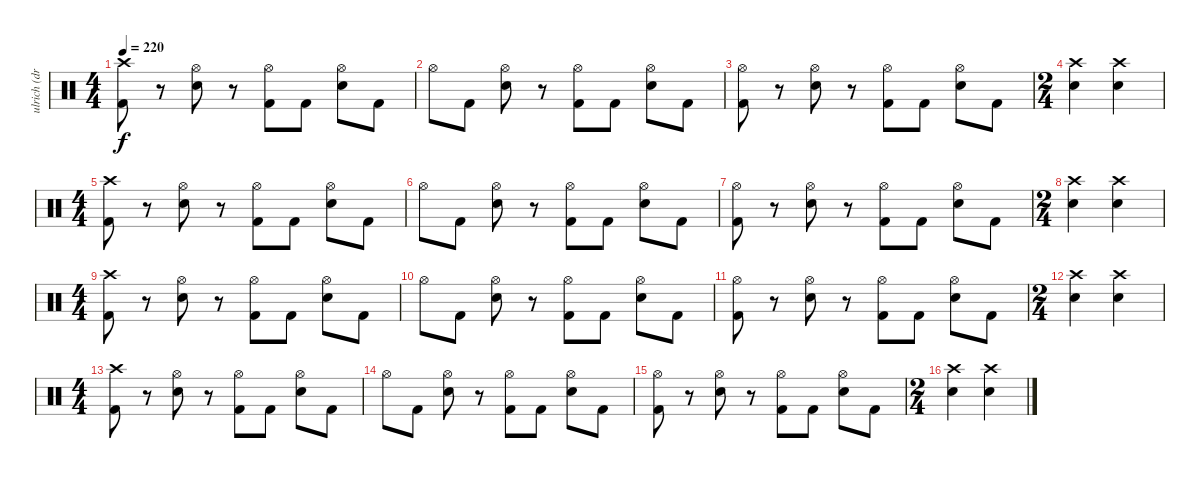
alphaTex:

\track ("ulrich (drums)" "ulrich (dr") {instrument percussion}
\staff {score}
\articulation defaults
\ts (4 4)
\tempo 220
\clef neutral
\ks c
("Crash high (hit)" "Kick (hit) 2").8{dy f} r.8 ("Hi-Hat (open)" "Snare (hit) 2").8 r.8 ("Hi-Hat (open)" "Kick (hit) 2").8 "Kick (hit) 2".8 ("Hi-Hat (open)" "Snare (hit) 2").8 "Kick (hit) 2".8 |
"Hi-Hat (open)".8 "Kick (hit) 2".8 ("Hi-Hat (open)" "Snare (hit) 2").8 r.8 ("Hi-Hat (open)" "Kick (hit) 2").8 "Kick (hit) 2".8 ("Hi-Hat (open)" "Snare (hit) 2").8 "Kick (hit) 2".8 |
("Hi-Hat (open)" "Kick (hit) 2").8 r.8 ("Hi-Hat (open)" "Snare (hit) 2").8 r.8 ("Hi-Hat (open)" "Kick (hit) 2").8 "Kick (hit) 2".8 ("Hi-Hat (open)" "Snare (hit) 2").8 "Kick (hit) 2".8 |
\ts (2 4)
("Crash high (hit)" "Snare (hit) 2").4 ("Crash high (hit)" "Snare (hit) 2").4 |
\ts (4 4)
("Crash high (hit)" "Kick (hit) 2").8 r.8 ("Hi-Hat (open)" "Snare (hit) 2").8 r.8 ("Hi-Hat (open)" "Kick (hit) 2").8 "Kick (hit) 2".8 ("Hi-Hat (open)" "Snare (hit) 2").8 "Kick (hit) 2".8 |
"Hi-Hat (open)".8 "Kick (hit) 2".8 ("Hi-Hat (open)" "Snare (hit) 2").8 r.8 ("Hi-Hat (open)" "Kick (hit) 2").8 "Kick (hit) 2".8 ("Hi-Hat (open)" "Snare (hit) 2").8 "Kick (hit) 2".8 |
("Hi-Hat (open)" "Kick (hit) 2").8 r.8 ("Hi-Hat (open)" "Snare (hit) 2").8 r.8 ("Hi-Hat (open)" "Kick (hit) 2").8 "Kick (hit) 2".8 ("Hi-Hat (open)" "Snare (hit) 2").8 "Kick (hit) 2".8 |
\ts (2 4)
("Crash high (hit)" "Snare (hit) 2").4 ("Crash high (hit)" "Snare (hit) 2").4 |
\ts (4 4)
("Crash high (hit)" "Kick (hit) 2").8 r.8 ("Hi-Hat (open)" "Snare (hit) 2").8 r.8 ("Hi-Hat (open)" "Kick (hit) 2").8 "Kick (hit) 2".8 ("Hi-Hat (open)" "Snare (hit) 2").8 "Kick (hit) 2".8 |
"Hi-Hat (open)".8 "Kick (hit) 2".8 ("Hi-Hat (open)" "Snare (hit) 2").8 r.8 ("Hi-Hat (open)" "Kick (hit) 2").8 "Kick (hit) 2".8 ("Hi-Hat (open)" "Snare (hit) 2").8 "Kick (hit) 2".8 |
("Hi-Hat (open)" "Kick (hit) 2").8 r.8 ("Hi-Hat (open)" "Snare (hit) 2").8 r.8 ("Hi-Hat (open)" "Kick (hit) 2").8 "Kick (hit) 2".8 ("Hi-Hat (open)" "Snare (hit) 2").8 "Kick (hit) 2".8 |
\ts (2 4)
("Crash high (hit)" "Snare (hit) 2").4 ("Crash high (hit)" "Snare (hit) 2").4 |
\ts (4 4)
("Crash high (hit)" "Kick (hit) 2").8 r.8 ("Hi-Hat (open)" "Snare (hit) 2").8 r.8 ("Hi-Hat (open)" "Kick (hit) 2").8 "Kick (hit) 2".8 ("Hi-Hat (open)" "Snare (hit) 2").8 "Kick (hit) 2".8 |
"Hi-Hat (open)".8 "Kick (hit) 2".8 ("Hi-Hat (open)" "Snare (hit) 2").8 r.8 ("Hi-Hat (open)" "Kick (hit) 2").8 "Kick (hit) 2".8 ("Hi-Hat (open)" "Snare (hit) 2").8 "Kick (hit) 2".8 |
("Hi-Hat (open)" "Kick (hit) 2").8 r.8 ("Hi-Hat (open)" "Snare (hit) 2").8 r.8 ("Hi-Hat (open)" "Kick (hit) 2").8 "Kick (hit) 2".8 ("Hi-Hat (open)" "Snare (hit) 2").8 "Kick (hit) 2".8 |
\ts (2 4)
("Crash high (hit)" "Snare (hit) 2").4 ("Crash high (hit)" "Snare (hit) 2").4
